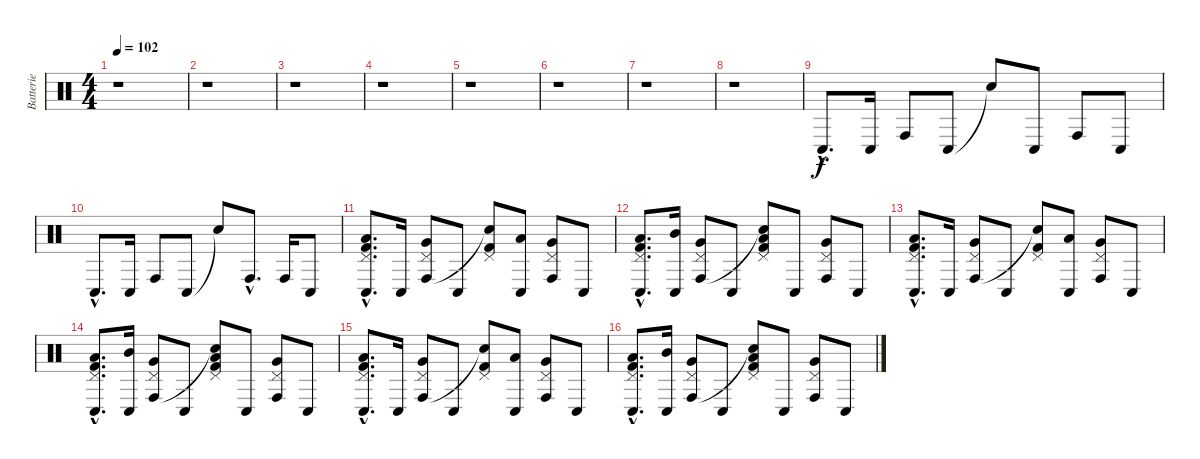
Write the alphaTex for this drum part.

\track ("Batterie" "Batterie") {instrument percussion}
\staff {score}
\articulation defaults
\ts (4 4)
\tempo 102
\clef neutral
\ks c
r.1{dy f} |
r.1 |
r.1 |
r.1 |
r.1 |
r.1 |
r.1 |
r.1 |
"Conga low (hit)"{hac}.8{d} "Conga low (hit)".16 "Conga high (hit)".8 "Conga low (hit)".8 "Snare (hit)"{t}.8 "Conga low (hit)".8 "Conga high (hit)".8 "Conga low (hit)".8 |
"Conga low (hit)"{hac}.8{d} "Conga low (hit)".16 "Conga high (hit)".8 "Conga low (hit)".8 "Snare (hit)"{t}.8 "Conga high (hit)"{hac}.8{d} "Conga high (hit)".16 "Conga low (hit)".8 |
("Pedal Hi-Hat (hit)"{hac} "Conga low (hit)"{hac} "Low Tom (hit)"{hac} "Kick (hit) 2"{hac}).8{d} "Conga low (hit)".16 ("Pedal Hi-Hat (hit)" "Conga high (hit)" "Very Low Tom (hit)").8 "Conga low (hit)".8 ("Pedal Hi-Hat (hit)" "Snare (hit)"{t} "Kick (hit) 2").8 ("Conga low (hit)" "Low Floor Tom (hit)").8 ("Pedal Hi-Hat (hit)" "Conga high (hit)" "Very Low Tom (hit)").8 "Conga low (hit)".8 |
("Pedal Hi-Hat (hit)"{hac} "Conga low (hit)"{hac} "Low Tom (hit)"{hac} "Kick (hit) 2"{hac}).8{d} ("Conga low (hit)" "Mid Tom (hit)").16 ("Pedal Hi-Hat (hit)" "Conga high (hit)" "Very Low Tom (hit)").8 "Conga low (hit)".8 ("Pedal Hi-Hat (hit)" "Snare (hit)"{t} "Low Floor Tom (hit)" "Kick (hit) 2").8 "Conga low (hit)".8 ("Pedal Hi-Hat (hit)" "Conga high (hit)" "Very Low Tom (hit)").8 "Conga low (hit)".8 |
("Pedal Hi-Hat (hit)"{hac} "Conga low (hit)"{hac} "Low Tom (hit)"{hac} "Kick (hit) 2"{hac}).8{d} "Conga low (hit)".16 ("Pedal Hi-Hat (hit)" "Conga high (hit)" "Very Low Tom (hit)").8 "Conga low (hit)".8 ("Pedal Hi-Hat (hit)" "Snare (hit)"{t} "Kick (hit) 2").8 ("Conga low (hit)" "Low Floor Tom (hit)").8 ("Pedal Hi-Hat (hit)" "Conga high (hit)" "Very Low Tom (hit)").8 "Conga low (hit)".8 |
("Pedal Hi-Hat (hit)"{hac} "Conga low (hit)"{hac} "Low Tom (hit)"{hac} "Kick (hit) 2"{hac}).8{d} ("Conga low (hit)" "Mid Tom (hit)").16 ("Pedal Hi-Hat (hit)" "Conga high (hit)" "Very Low Tom (hit)").8 "Conga low (hit)".8 ("Pedal Hi-Hat (hit)" "Snare (hit)"{t} "Low Floor Tom (hit)" "Kick (hit) 2").8 "Conga low (hit)".8 ("Pedal Hi-Hat (hit)" "Conga high (hit)" "Very Low Tom (hit)").8 "Conga low (hit)".8 |
("Pedal Hi-Hat (hit)"{hac} "Conga low (hit)"{hac} "Low Tom (hit)"{hac} "Kick (hit) 2"{hac}).8{d} "Conga low (hit)".16 ("Pedal Hi-Hat (hit)" "Conga high (hit)" "Very Low Tom (hit)").8 "Conga low (hit)".8 ("Pedal Hi-Hat (hit)" "Snare (hit)"{t} "Kick (hit) 2").8 ("Conga low (hit)" "Low Floor Tom (hit)").8 ("Pedal Hi-Hat (hit)" "Conga high (hit)" "Very Low Tom (hit)").8 "Conga low (hit)".8 |
("Pedal Hi-Hat (hit)"{hac} "Conga low (hit)"{hac} "Low Tom (hit)"{hac} "Kick (hit) 2"{hac}).8{d} ("Conga low (hit)" "Mid Tom (hit)").16 ("Pedal Hi-Hat (hit)" "Conga high (hit)" "Very Low Tom (hit)").8 "Conga low (hit)".8 ("Pedal Hi-Hat (hit)" "Snare (hit)"{t} "Low Floor Tom (hit)" "Kick (hit) 2").8 "Conga low (hit)".8 ("Pedal Hi-Hat (hit)" "Conga high (hit)" "Very Low Tom (hit)").8 "Conga low (hit)".8
